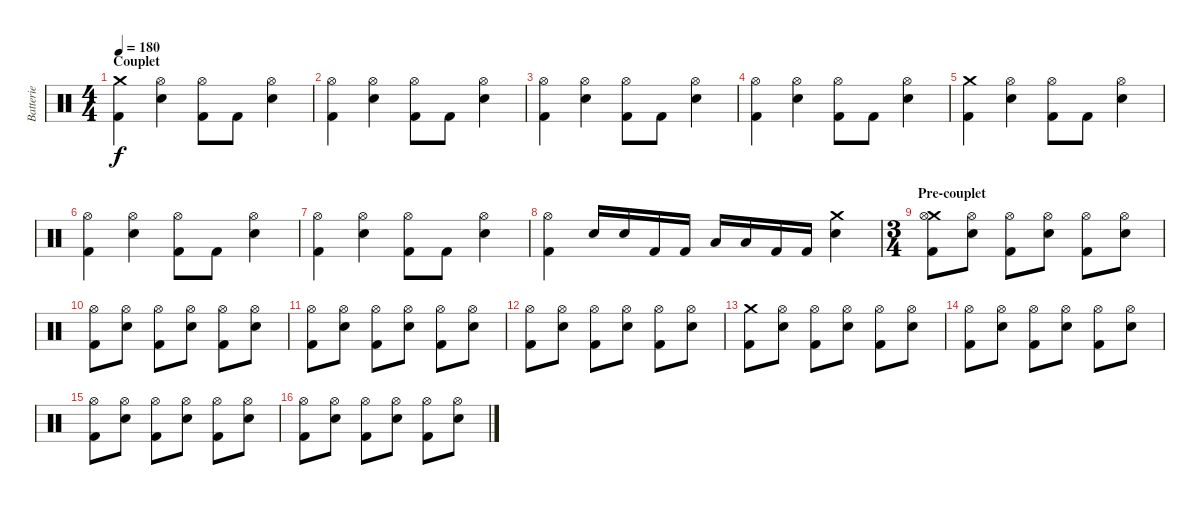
\track ("Batterie" "Batterie") {instrument percussion}
\staff {score}
\articulation defaults
\ts (4 4)
\section ("" "Couplet")
\tempo 180
\clef neutral
\ks c
("Crash medium (hit)" "Kick (hit) 2").4{dy f} ("Hi-Hat (open)" "Electric Snare (hit)").4 ("Hi-Hat (open)" "Kick (hit) 2").8 "Kick (hit) 2".8 ("Hi-Hat (open)" "Electric Snare (hit)").4 |
("Hi-Hat (open)" "Kick (hit) 2").4 ("Hi-Hat (open)" "Electric Snare (hit)").4 ("Hi-Hat (open)" "Kick (hit) 2").8 "Kick (hit) 2".8 ("Hi-Hat (open)" "Electric Snare (hit)").4 |
("Hi-Hat (open)" "Kick (hit) 2").4 ("Hi-Hat (open)" "Electric Snare (hit)").4 ("Hi-Hat (open)" "Kick (hit) 2").8 "Kick (hit) 2".8 ("Hi-Hat (open)" "Electric Snare (hit)").4 |
("Hi-Hat (open)" "Kick (hit) 2").4 ("Hi-Hat (open)" "Electric Snare (hit)").4 ("Hi-Hat (open)" "Kick (hit) 2").8 "Kick (hit) 2".8 ("Hi-Hat (open)" "Electric Snare (hit)").4 |
("Crash medium (hit)" "Kick (hit) 2").4 ("Hi-Hat (open)" "Electric Snare (hit)").4 ("Hi-Hat (open)" "Kick (hit) 2").8 "Kick (hit) 2".8 ("Hi-Hat (open)" "Electric Snare (hit)").4 |
("Hi-Hat (open)" "Kick (hit) 2").4 ("Hi-Hat (open)" "Electric Snare (hit)").4 ("Hi-Hat (open)" "Kick (hit) 2").8 "Kick (hit) 2".8 ("Hi-Hat (open)" "Electric Snare (hit)").4 |
("Hi-Hat (open)" "Kick (hit) 2").4 ("Hi-Hat (open)" "Electric Snare (hit)").4 ("Hi-Hat (open)" "Kick (hit) 2").8 "Kick (hit) 2".8 ("Hi-Hat (open)" "Electric Snare (hit)").4 |
("Hi-Hat (open)" "Kick (hit) 2").4 "Electric Snare (hit)".16 "Electric Snare (hit)".16 "Kick (hit) 2".16 "Kick (hit) 2".16 "Low Floor Tom (hit)".16 "Low Floor Tom (hit)".16 "Kick (hit) 2".16 "Kick (hit) 2".16 ("Crash medium (hit)" "Electric Snare (hit)").4 |
\ts (3 4)
\section ("" "Pre-couplet")
("Crash medium (hit)" "Hi-Hat (open)" "Kick (hit) 2").8 ("Hi-Hat (open)" "Electric Snare (hit)").8 ("Hi-Hat (open)" "Kick (hit) 2").8 ("Hi-Hat (open)" "Electric Snare (hit)").8 ("Hi-Hat (open)" "Kick (hit) 2").8 ("Hi-Hat (open)" "Electric Snare (hit)").8 |
("Hi-Hat (open)" "Kick (hit) 2").8 ("Hi-Hat (open)" "Electric Snare (hit)").8 ("Hi-Hat (open)" "Kick (hit) 2").8 ("Hi-Hat (open)" "Electric Snare (hit)").8 ("Hi-Hat (open)" "Kick (hit) 2").8 ("Hi-Hat (open)" "Electric Snare (hit)").8 |
("Hi-Hat (open)" "Kick (hit) 2").8 ("Hi-Hat (open)" "Electric Snare (hit)").8 ("Hi-Hat (open)" "Kick (hit) 2").8 ("Hi-Hat (open)" "Electric Snare (hit)").8 ("Hi-Hat (open)" "Kick (hit) 2").8 ("Hi-Hat (open)" "Electric Snare (hit)").8 |
("Hi-Hat (open)" "Kick (hit) 2").8 ("Hi-Hat (open)" "Electric Snare (hit)").8 ("Hi-Hat (open)" "Kick (hit) 2").8 ("Hi-Hat (open)" "Electric Snare (hit)").8 ("Hi-Hat (open)" "Kick (hit) 2").8 ("Hi-Hat (open)" "Electric Snare (hit)").8 |
("Crash medium (hit)" "Kick (hit) 2").8 ("Hi-Hat (open)" "Electric Snare (hit)").8 ("Hi-Hat (open)" "Kick (hit) 2").8 ("Hi-Hat (open)" "Electric Snare (hit)").8 ("Hi-Hat (open)" "Kick (hit) 2").8 ("Hi-Hat (open)" "Electric Snare (hit)").8 |
("Hi-Hat (open)" "Kick (hit) 2").8 ("Hi-Hat (open)" "Electric Snare (hit)").8 ("Hi-Hat (open)" "Kick (hit) 2").8 ("Hi-Hat (open)" "Electric Snare (hit)").8 ("Hi-Hat (open)" "Kick (hit) 2").8 ("Hi-Hat (open)" "Electric Snare (hit)").8 |
("Hi-Hat (open)" "Kick (hit) 2").8 ("Hi-Hat (open)" "Electric Snare (hit)").8 ("Hi-Hat (open)" "Kick (hit) 2").8 ("Hi-Hat (open)" "Electric Snare (hit)").8 ("Hi-Hat (open)" "Kick (hit) 2").8 ("Hi-Hat (open)" "Electric Snare (hit)").8 |
("Hi-Hat (open)" "Kick (hit) 2").8 ("Hi-Hat (open)" "Electric Snare (hit)").8 ("Hi-Hat (open)" "Kick (hit) 2").8 ("Hi-Hat (open)" "Electric Snare (hit)").8 ("Hi-Hat (open)" "Kick (hit) 2").8 ("Hi-Hat (open)" "Electric Snare (hit)").8
